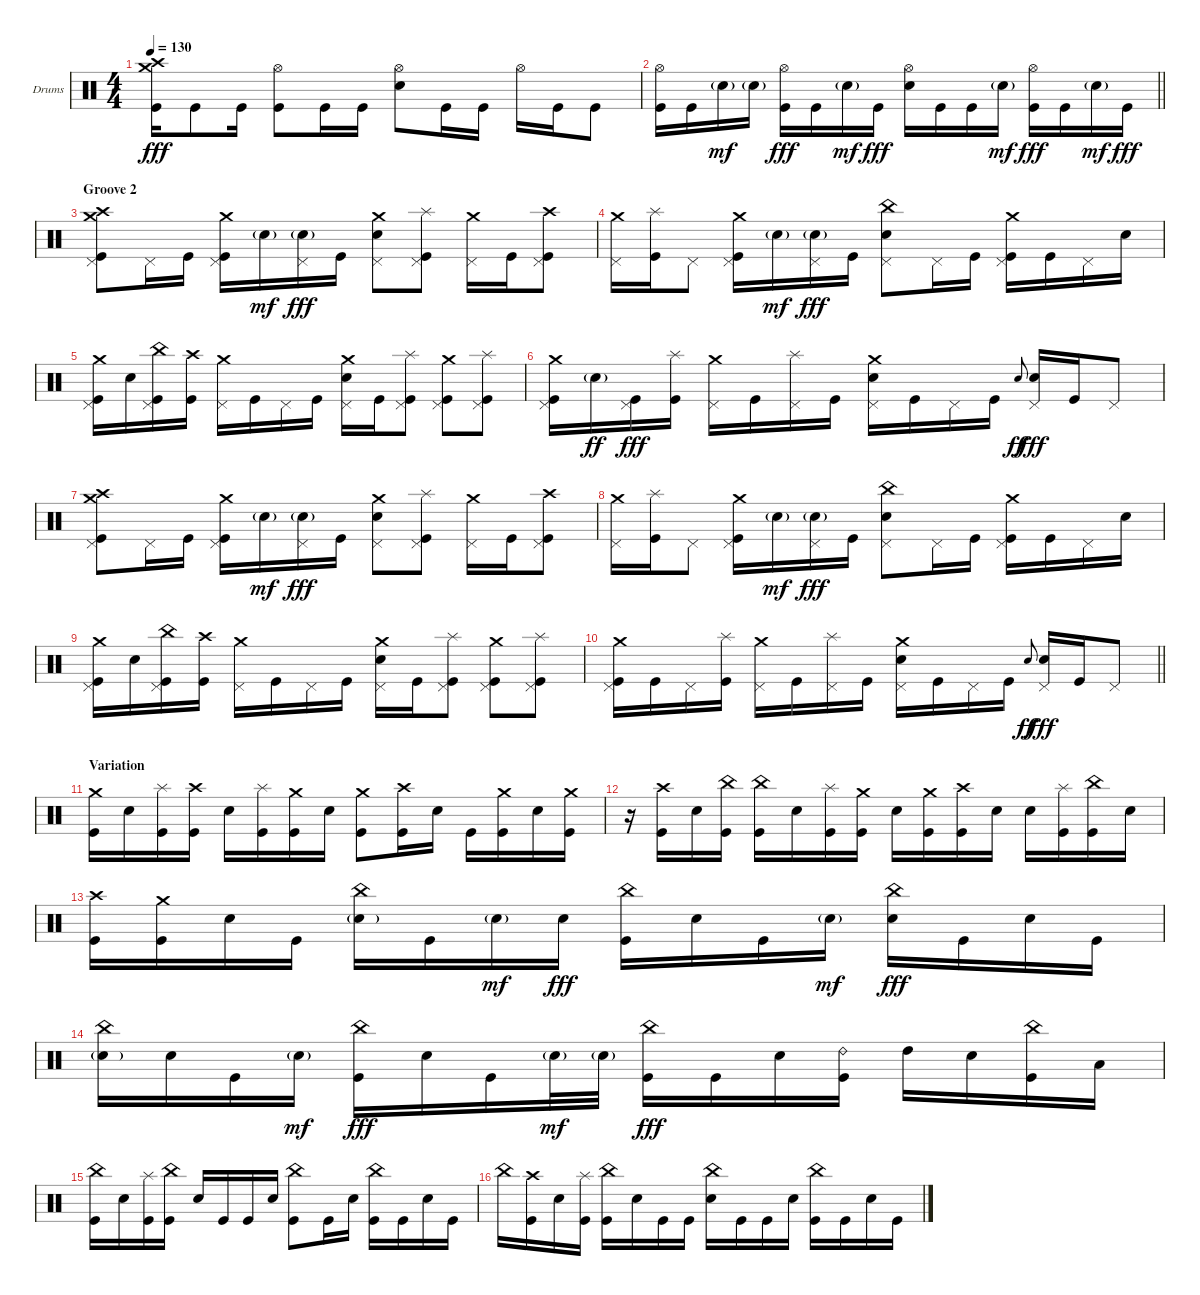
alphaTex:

\bracketExtendMode groupsimilarinstruments
\firstSystemTrackNameOrientation horizontal
\otherSystemsTrackNameOrientation horizontal
\track ("Drumkit" "Drums") {instrument percussion}
\staff {score}
\articulation defaults
\ts (4 4)
\tempo 130
\clef neutral
\ks c
("Crash medium (hit)" "Crash high (hit)" "Kick (hit)").16{dy fff} "Kick (hit)".8 "Kick (hit)".16 ("Hi-Hat (open)" "Kick (hit)").8 "Kick (hit)".16 "Kick (hit)".16 ("Hi-Hat (open)" "Snare (hit) 2").8 "Kick (hit)".16 "Kick (hit)".16 "Hi-Hat (open)".16 "Kick (hit)".16 "Kick (hit)".8 |
\barLineRight lightlight
("Hi-Hat (open)" "Kick (hit)").16 "Kick (hit)".16 "Snare (hit) 2"{g}.16{dy mf} "Snare (hit) 2"{g}.16 ("Hi-Hat (open)" "Kick (hit)").16{dy fff} "Kick (hit)".16 "Snare (hit) 2"{g}.16{dy mf} "Kick (hit)".16{dy fff} ("Hi-Hat (open)" "Snare (hit) 2").16 "Kick (hit)".16 "Kick (hit)".16 "Snare (hit) 2"{g}.16{dy mf} ("Hi-Hat (open)" "Kick (hit)").16{dy fff} "Kick (hit)".16 "Snare (hit) 2"{g}.16{dy mf} "Kick (hit)".16{dy fff} |
\section ("" "Groove 2")
("Crash medium (hit)" "Crash high (hit)" "Pedal Hi-Hat (hit)" "Kick (hit)").8 "Pedal Hi-Hat (hit)".16 "Kick (hit)".16 ("Crash medium (hit)" "Pedal Hi-Hat (hit)" "Kick (hit)").16 "Snare (hit) 2"{g}.16{dy mf} ("Snare (hit) 2"{g} "Pedal Hi-Hat (hit)").16{dy fff} "Kick (hit)".16 ("Crash medium (hit)" "Snare (hit) 2" "Pedal Hi-Hat (hit)").8 ("Splash (hit)" "Pedal Hi-Hat (hit)" "Kick (hit)").8 ("Crash medium (hit)" "Pedal Hi-Hat (hit)").16 "Kick (hit)".16 ("Crash high (hit)" "Pedal Hi-Hat (hit)" "Kick (hit)").8 |
("Crash medium (hit)" "Pedal Hi-Hat (hit)").16 ("Splash (hit)" "Kick (hit)").16 "Pedal Hi-Hat (hit)".8 ("Crash medium (hit)" "Pedal Hi-Hat (hit)" "Kick (hit)").16 "Snare (hit) 2"{g}.16{dy mf} ("Snare (hit) 2"{g} "Pedal Hi-Hat (hit)").16{dy fff} "Kick (hit)".16 ("China (hit)" "Snare (hit) 2" "Pedal Hi-Hat (hit)").8 "Pedal Hi-Hat (hit)".16 "Kick (hit)".16 ("Crash medium (hit)" "Pedal Hi-Hat (hit)" "Kick (hit)").16 "Kick (hit)".16 "Pedal Hi-Hat (hit)".16 "Snare (hit) 2".16 |
("Crash medium (hit)" "Pedal Hi-Hat (hit)" "Kick (hit)").16 "Snare (hit) 2".16 ("China (hit)" "Pedal Hi-Hat (hit)" "Kick (hit)").16 ("Crash high (hit)" "Kick (hit)").16 ("Crash medium (hit)" "Pedal Hi-Hat (hit)").16 "Kick (hit)".16 "Pedal Hi-Hat (hit)".16 "Kick (hit)".16 ("Crash medium (hit)" "Snare (hit) 2" "Pedal Hi-Hat (hit)").16 "Kick (hit)".16 ("Splash (hit)" "Pedal Hi-Hat (hit)" "Kick (hit)").8 ("Crash medium (hit)" "Pedal Hi-Hat (hit)" "Kick (hit)").8 ("Splash (hit)" "Pedal Hi-Hat (hit)" "Kick (hit)").8 |
("Crash medium (hit)" "Pedal Hi-Hat (hit)" "Kick (hit)").16 "Snare (hit) 2"{g}.16{dy ff} ("Pedal Hi-Hat (hit)" "Kick (hit)").16{dy fff} ("Splash (hit)" "Kick (hit)").16 ("Crash medium (hit)" "Pedal Hi-Hat (hit)").16 "Kick (hit)".16 ("Splash (hit)" "Pedal Hi-Hat (hit)").16 "Kick (hit)".16 ("Crash medium (hit)" "Snare (hit) 2" "Pedal Hi-Hat (hit)").16 "Kick (hit)".16 "Pedal Hi-Hat (hit)".16 "Kick (hit)".16 "Snare (hit) 2".8{gr onbeat dy ff} ("Snare (hit) 2" "Pedal Hi-Hat (hit)").16{dy fff} "Kick (hit)".16 "Pedal Hi-Hat (hit)".8 |
("Crash medium (hit)" "Crash high (hit)" "Pedal Hi-Hat (hit)" "Kick (hit)").8 "Pedal Hi-Hat (hit)".16 "Kick (hit)".16 ("Crash medium (hit)" "Pedal Hi-Hat (hit)" "Kick (hit)").16 "Snare (hit) 2"{g}.16{dy mf} ("Snare (hit) 2"{g} "Pedal Hi-Hat (hit)").16{dy fff} "Kick (hit)".16 ("Crash medium (hit)" "Snare (hit) 2" "Pedal Hi-Hat (hit)").8 ("Splash (hit)" "Pedal Hi-Hat (hit)" "Kick (hit)").8 ("Crash medium (hit)" "Pedal Hi-Hat (hit)").16 "Kick (hit)".16 ("Crash high (hit)" "Pedal Hi-Hat (hit)" "Kick (hit)").8 |
("Crash medium (hit)" "Pedal Hi-Hat (hit)").16 ("Splash (hit)" "Kick (hit)").16 "Pedal Hi-Hat (hit)".8 ("Crash medium (hit)" "Pedal Hi-Hat (hit)" "Kick (hit)").16 "Snare (hit) 2"{g}.16{dy mf} ("Snare (hit) 2"{g} "Pedal Hi-Hat (hit)").16{dy fff} "Kick (hit)".16 ("China (hit)" "Snare (hit) 2" "Pedal Hi-Hat (hit)").8 "Pedal Hi-Hat (hit)".16 "Kick (hit)".16 ("Crash medium (hit)" "Pedal Hi-Hat (hit)" "Kick (hit)").16 "Kick (hit)".16 "Pedal Hi-Hat (hit)".16 "Snare (hit) 2".16 |
("Crash medium (hit)" "Pedal Hi-Hat (hit)" "Kick (hit)").16 "Snare (hit) 2".16 ("China (hit)" "Pedal Hi-Hat (hit)" "Kick (hit)").16 ("Crash high (hit)" "Kick (hit)").16 ("Crash medium (hit)" "Pedal Hi-Hat (hit)").16 "Kick (hit)".16 "Pedal Hi-Hat (hit)".16 "Kick (hit)".16 ("Crash medium (hit)" "Snare (hit) 2" "Pedal Hi-Hat (hit)").16 "Kick (hit)".16 ("Splash (hit)" "Pedal Hi-Hat (hit)" "Kick (hit)").8 ("Crash medium (hit)" "Pedal Hi-Hat (hit)" "Kick (hit)").8 ("Splash (hit)" "Pedal Hi-Hat (hit)" "Kick (hit)").8 |
\barLineRight lightlight
("Crash medium (hit)" "Pedal Hi-Hat (hit)" "Kick (hit)").16 "Kick (hit)".16 "Pedal Hi-Hat (hit)".16 ("Splash (hit)" "Kick (hit)").16 ("Crash medium (hit)" "Pedal Hi-Hat (hit)").16 "Kick (hit)".16 ("Splash (hit)" "Pedal Hi-Hat (hit)").16 "Kick (hit)".16 ("Crash medium (hit)" "Snare (hit) 2" "Pedal Hi-Hat (hit)").16 "Kick (hit)".16 "Pedal Hi-Hat (hit)".16 "Kick (hit)".16 "Snare (hit) 2".8{gr onbeat dy ff} ("Snare (hit) 2" "Pedal Hi-Hat (hit)").16{dy fff} "Kick (hit)".16 "Pedal Hi-Hat (hit)".8 |
\section ("" "Variation")
("Crash medium (hit)" "Kick (hit)").16 "Snare (hit) 2".16 ("Splash (hit)" "Kick (hit)").16 ("Crash high (hit)" "Kick (hit)").16 "Snare (hit) 2".16 ("Splash (hit)" "Kick (hit)").16 ("Crash medium (hit)" "Kick (hit)").16 "Snare (hit) 2".16 ("Crash medium (hit)" "Kick (hit)").8 ("Crash high (hit)" "Kick (hit)").16 "Snare (hit) 2".16 "Kick (hit)".16 ("Crash medium (hit)" "Kick (hit)").16 "Snare (hit) 2".16 ("Crash medium (hit)" "Kick (hit)").16 |
r.16 ("Crash high (hit)" "Kick (hit)").16 "Snare (hit) 2".16 ("China (hit)" "Kick (hit)").16 ("China (hit)" "Kick (hit)").16 "Snare (hit) 2".16 ("Splash (hit)" "Kick (hit)").16 ("Crash medium (hit)" "Kick (hit)").16 "Snare (hit) 2".16 ("Crash medium (hit)" "Kick (hit)").16 ("Crash high (hit)" "Kick (hit)").16 "Snare (hit) 2".16 "Snare (hit) 2".16 ("Splash (hit)" "Kick (hit)").16 ("China (hit)" "Kick (hit)").16 "Snare (hit) 2".16 |
("Crash high (hit)" "Kick (hit)").16 ("Crash medium (hit)" "Kick (hit)").16 "Snare (hit) 2".16 "Kick (hit)".16 ("China (hit)" "Snare (hit) 2"{g}).16 "Kick (hit)".16 "Snare (hit) 2"{g}.16{dy mf} "Snare (hit) 2".16{dy fff} ("China (hit)" "Kick (hit)").16 "Snare (hit) 2".16 "Kick (hit)".16 "Snare (hit) 2"{g}.16{dy mf} ("China (hit)" "Snare (hit) 2").16{dy fff} "Kick (hit)".16 "Snare (hit) 2".16 "Kick (hit)".16 |
("China (hit)" "Snare (hit) 2"{g}).16 "Snare (hit) 2".16 "Kick (hit)".16 "Snare (hit) 2"{g}.16{dy mf} ("China (hit)" "Kick (hit)").16{dy fff} "Snare (hit) 2".16 "Kick (hit)".16 "Snare (hit) 2"{g}.32{dy mf} "Snare (hit) 2"{g}.32 ("China (hit)" "Kick (hit)").16{dy fff} "Kick (hit)".16 "Snare (hit) 2".16 ("Ride (bell) 2" "Kick (hit)").16 "High Tom (hit)".16 "Snare (hit) 2".16 ("China (hit)" "Kick (hit)").16 "Low Tom (hit)".16 |
("China (hit)" "Kick (hit)").16 "Snare (hit) 2".16 ("Splash (hit)" "Kick (hit)").16 ("China (hit)" "Kick (hit)").16 "Snare (hit) 2".16 "Kick (hit)".16 "Kick (hit)".16 "Snare (hit) 2".16 ("China (hit)" "Kick (hit)").8 "Kick (hit)".16 "Snare (hit) 2".16 ("China (hit)" "Kick (hit)").16 "Kick (hit)".16 "Snare (hit) 2".16 "Kick (hit)".16 |
"China (hit)".16 ("Crash high (hit)" "Kick (hit)").16 "Snare (hit) 2".16 ("Splash (hit)" "Kick (hit)").16 ("China (hit)" "Kick (hit)").16 "Snare (hit) 2".16 "Kick (hit)".16 "Kick (hit)".16 ("China (hit)" "Snare (hit) 2").16 "Kick (hit)".16 "Kick (hit)".16 "Snare (hit) 2".16 ("China (hit)" "Kick (hit)").16 "Kick (hit)".16 "Snare (hit) 2".16 "Kick (hit)".16
